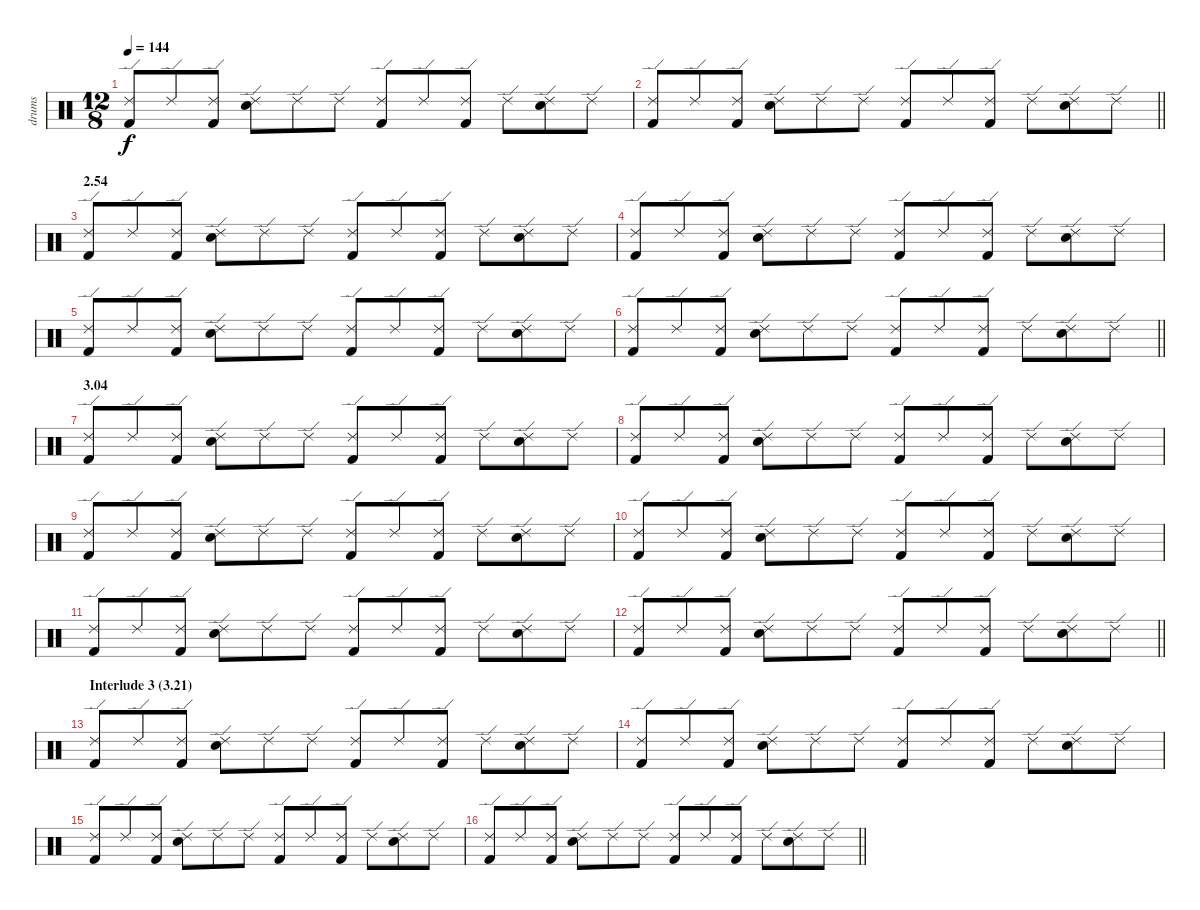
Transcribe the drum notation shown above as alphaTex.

\track ("drums" "drums") {instrument percussion}
\staff {score}
\articulation defaults
\ts (12 8)
\tempo 144
\clef neutral
\ks c
("Ride (edge) 2" "Kick (hit) 2").8{dy f} "Ride (edge) 2".8 ("Ride (edge) 2" "Kick (hit) 2").8 ("Ride (edge) 2" "Electric Snare (hit)").8 "Ride (edge) 2".8 "Ride (edge) 2".8 ("Ride (edge) 2" "Kick (hit) 2").8 "Ride (edge) 2".8 ("Ride (edge) 2" "Kick (hit) 2").8 "Ride (edge) 2".8 ("Ride (edge) 2" "Electric Snare (hit)").8 "Ride (edge) 2".8 |
\barLineRight lightlight
("Ride (edge) 2" "Kick (hit) 2").8 "Ride (edge) 2".8 ("Ride (edge) 2" "Kick (hit) 2").8 ("Ride (edge) 2" "Electric Snare (hit)").8 "Ride (edge) 2".8 "Ride (edge) 2".8 ("Ride (edge) 2" "Kick (hit) 2").8 "Ride (edge) 2".8 ("Ride (edge) 2" "Kick (hit) 2").8 "Ride (edge) 2".8 ("Ride (edge) 2" "Electric Snare (hit)").8 "Ride (edge) 2".8 |
\section ("" "2.54")
("Ride (edge) 2" "Kick (hit) 2").8 "Ride (edge) 2".8 ("Ride (edge) 2" "Kick (hit) 2").8 ("Ride (edge) 2" "Electric Snare (hit)").8 "Ride (edge) 2".8 "Ride (edge) 2".8 ("Ride (edge) 2" "Kick (hit) 2").8 "Ride (edge) 2".8 ("Ride (edge) 2" "Kick (hit) 2").8 "Ride (edge) 2".8 ("Ride (edge) 2" "Electric Snare (hit)").8 "Ride (edge) 2".8 |
("Ride (edge) 2" "Kick (hit) 2").8 "Ride (edge) 2".8 ("Ride (edge) 2" "Kick (hit) 2").8 ("Ride (edge) 2" "Electric Snare (hit)").8 "Ride (edge) 2".8 "Ride (edge) 2".8 ("Ride (edge) 2" "Kick (hit) 2").8 "Ride (edge) 2".8 ("Ride (edge) 2" "Kick (hit) 2").8 "Ride (edge) 2".8 ("Ride (edge) 2" "Electric Snare (hit)").8 "Ride (edge) 2".8 |
("Ride (edge) 2" "Kick (hit) 2").8 "Ride (edge) 2".8 ("Ride (edge) 2" "Kick (hit) 2").8 ("Ride (edge) 2" "Electric Snare (hit)").8 "Ride (edge) 2".8 "Ride (edge) 2".8 ("Ride (edge) 2" "Kick (hit) 2").8 "Ride (edge) 2".8 ("Ride (edge) 2" "Kick (hit) 2").8 "Ride (edge) 2".8 ("Ride (edge) 2" "Electric Snare (hit)").8 "Ride (edge) 2".8 |
\barLineRight lightlight
("Ride (edge) 2" "Kick (hit) 2").8 "Ride (edge) 2".8 ("Ride (edge) 2" "Kick (hit) 2").8 ("Ride (edge) 2" "Electric Snare (hit)").8 "Ride (edge) 2".8 "Ride (edge) 2".8 ("Ride (edge) 2" "Kick (hit) 2").8 "Ride (edge) 2".8 ("Ride (edge) 2" "Kick (hit) 2").8 "Ride (edge) 2".8 ("Ride (edge) 2" "Electric Snare (hit)").8 "Ride (edge) 2".8 |
\section ("" "3.04")
("Ride (edge) 2" "Kick (hit) 2").8 "Ride (edge) 2".8 ("Ride (edge) 2" "Kick (hit) 2").8 ("Ride (edge) 2" "Electric Snare (hit)").8 "Ride (edge) 2".8 "Ride (edge) 2".8 ("Ride (edge) 2" "Kick (hit) 2").8 "Ride (edge) 2".8 ("Ride (edge) 2" "Kick (hit) 2").8 "Ride (edge) 2".8 ("Ride (edge) 2" "Electric Snare (hit)").8 "Ride (edge) 2".8 |
("Ride (edge) 2" "Kick (hit) 2").8 "Ride (edge) 2".8 ("Ride (edge) 2" "Kick (hit) 2").8 ("Ride (edge) 2" "Electric Snare (hit)").8 "Ride (edge) 2".8 "Ride (edge) 2".8 ("Ride (edge) 2" "Kick (hit) 2").8 "Ride (edge) 2".8 ("Ride (edge) 2" "Kick (hit) 2").8 "Ride (edge) 2".8 ("Ride (edge) 2" "Electric Snare (hit)").8 "Ride (edge) 2".8 |
("Ride (edge) 2" "Kick (hit) 2").8 "Ride (edge) 2".8 ("Ride (edge) 2" "Kick (hit) 2").8 ("Ride (edge) 2" "Electric Snare (hit)").8 "Ride (edge) 2".8 "Ride (edge) 2".8 ("Ride (edge) 2" "Kick (hit) 2").8 "Ride (edge) 2".8 ("Ride (edge) 2" "Kick (hit) 2").8 "Ride (edge) 2".8 ("Ride (edge) 2" "Electric Snare (hit)").8 "Ride (edge) 2".8 |
("Ride (edge) 2" "Kick (hit) 2").8 "Ride (edge) 2".8 ("Ride (edge) 2" "Kick (hit) 2").8 ("Ride (edge) 2" "Electric Snare (hit)").8 "Ride (edge) 2".8 "Ride (edge) 2".8 ("Ride (edge) 2" "Kick (hit) 2").8 "Ride (edge) 2".8 ("Ride (edge) 2" "Kick (hit) 2").8 "Ride (edge) 2".8 ("Ride (edge) 2" "Electric Snare (hit)").8 "Ride (edge) 2".8 |
("Ride (edge) 2" "Kick (hit) 2").8 "Ride (edge) 2".8 ("Ride (edge) 2" "Kick (hit) 2").8 ("Ride (edge) 2" "Electric Snare (hit)").8 "Ride (edge) 2".8 "Ride (edge) 2".8 ("Ride (edge) 2" "Kick (hit) 2").8 "Ride (edge) 2".8 ("Ride (edge) 2" "Kick (hit) 2").8 "Ride (edge) 2".8 ("Ride (edge) 2" "Electric Snare (hit)").8 "Ride (edge) 2".8 |
\barLineRight lightlight
("Ride (edge) 2" "Kick (hit) 2").8 "Ride (edge) 2".8 ("Ride (edge) 2" "Kick (hit) 2").8 ("Ride (edge) 2" "Electric Snare (hit)").8 "Ride (edge) 2".8 "Ride (edge) 2".8 ("Ride (edge) 2" "Kick (hit) 2").8 "Ride (edge) 2".8 ("Ride (edge) 2" "Kick (hit) 2").8 "Ride (edge) 2".8 ("Ride (edge) 2" "Electric Snare (hit)").8 "Ride (edge) 2".8 |
\section ("" "Interlude 3 (3.21)")
("Ride (edge) 2" "Kick (hit) 2").8 "Ride (edge) 2".8 ("Ride (edge) 2" "Kick (hit) 2").8 ("Ride (edge) 2" "Electric Snare (hit)").8 "Ride (edge) 2".8 "Ride (edge) 2".8 ("Ride (edge) 2" "Kick (hit) 2").8 "Ride (edge) 2".8 ("Ride (edge) 2" "Kick (hit) 2").8 "Ride (edge) 2".8 ("Ride (edge) 2" "Electric Snare (hit)").8 "Ride (edge) 2".8 |
("Ride (edge) 2" "Kick (hit) 2").8 "Ride (edge) 2".8 ("Ride (edge) 2" "Kick (hit) 2").8 ("Ride (edge) 2" "Electric Snare (hit)").8 "Ride (edge) 2".8 "Ride (edge) 2".8 ("Ride (edge) 2" "Kick (hit) 2").8 "Ride (edge) 2".8 ("Ride (edge) 2" "Kick (hit) 2").8 "Ride (edge) 2".8 ("Ride (edge) 2" "Electric Snare (hit)").8 "Ride (edge) 2".8 |
("Ride (edge) 2" "Kick (hit) 2").8 "Ride (edge) 2".8 ("Ride (edge) 2" "Kick (hit) 2").8 ("Ride (edge) 2" "Electric Snare (hit)").8 "Ride (edge) 2".8 "Ride (edge) 2".8 ("Ride (edge) 2" "Kick (hit) 2").8 "Ride (edge) 2".8 ("Ride (edge) 2" "Kick (hit) 2").8 "Ride (edge) 2".8 ("Ride (edge) 2" "Electric Snare (hit)").8 "Ride (edge) 2".8 |
\barLineRight lightlight
("Ride (edge) 2" "Kick (hit) 2").8 "Ride (edge) 2".8 ("Ride (edge) 2" "Kick (hit) 2").8 ("Ride (edge) 2" "Electric Snare (hit)").8 "Ride (edge) 2".8 "Ride (edge) 2".8 ("Ride (edge) 2" "Kick (hit) 2").8 "Ride (edge) 2".8 ("Ride (edge) 2" "Kick (hit) 2").8 "Ride (edge) 2".8 ("Ride (edge) 2" "Electric Snare (hit)").8 "Ride (edge) 2".8
